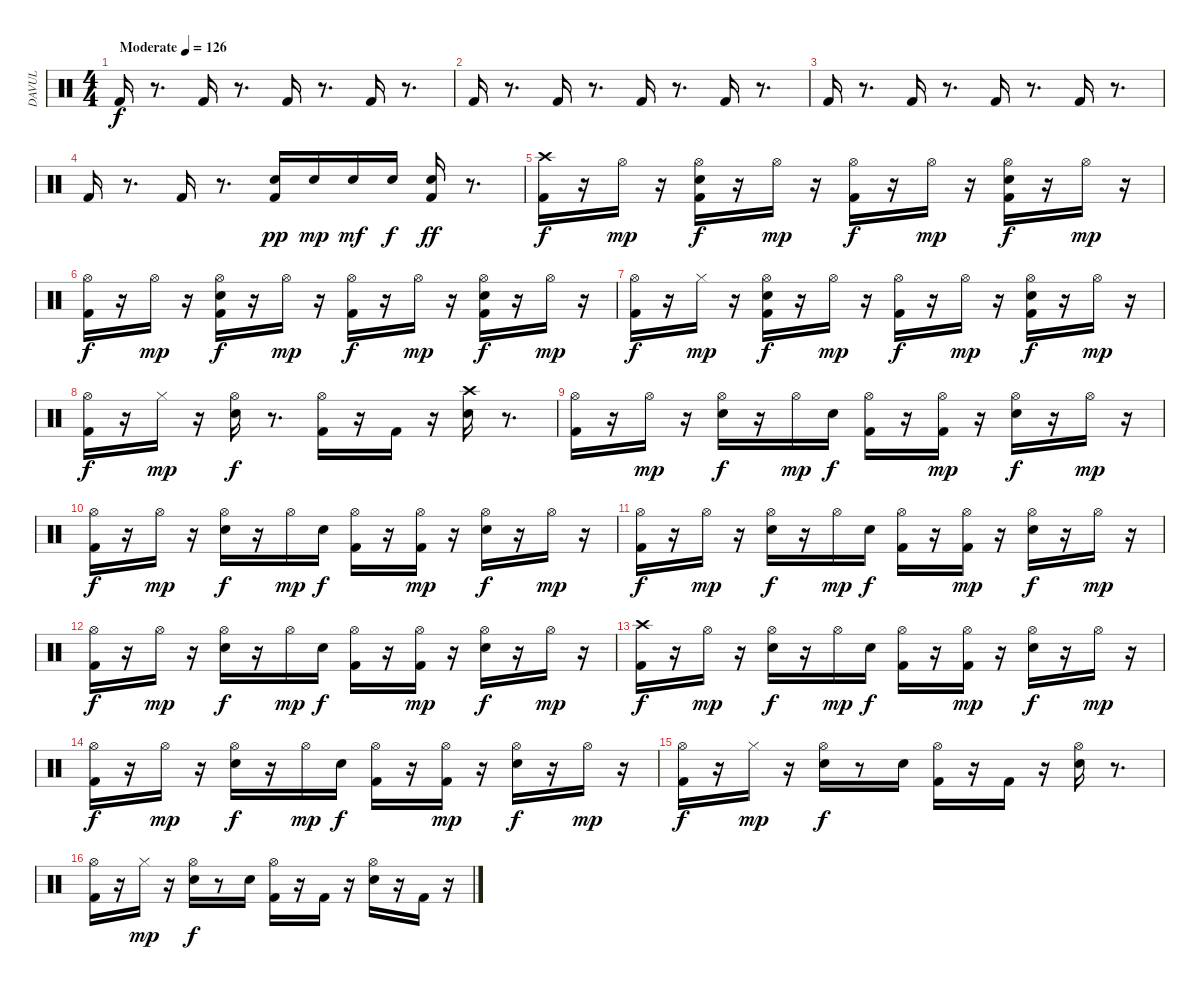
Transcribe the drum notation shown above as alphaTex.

\track ("DAVUL" "DAVUL") {instrument percussion}
\staff {score}
\articulation defaults
\ts (4 4)
\tempo (126 "Moderate")
\clef neutral
\ks c "Kick (hit) 2".16{dy f}
r.8{d} "Kick (hit) 2".16 r.8{d} "Kick (hit) 2".16 r.8{d} "Kick (hit) 2".16 r.8{d} |
"Kick (hit) 2".16 r.8{d} "Kick (hit) 2".16 r.8{d} "Kick (hit) 2".16 r.8{d} "Kick (hit) 2".16 r.8{d} |
"Kick (hit) 2".16 r.8{d} "Kick (hit) 2".16 r.8{d} "Kick (hit) 2".16 r.8{d} "Kick (hit) 2".16 r.8{d} |
"Kick (hit) 2".16 r.8{d} "Kick (hit) 2".16 r.8{d} ("Kick (hit) 2" "Electric Snare (hit)").16{dy pp} "Electric Snare (hit)".16{dy mp} "Electric Snare (hit)".16{dy mf} "Electric Snare (hit)".16{dy f} ("Kick (hit) 2" "Electric Snare (hit)").16{dy ff} r.8{d} |
("Kick (hit) 2" "Crash high (hit)").16{dy f} r.16 "Hi-Hat (open)".16{dy mp} r.16 ("Kick (hit) 2" "Hi-Hat (open)" "Electric Snare (hit)").16{dy f} r.16 "Hi-Hat (open)".16{dy mp} r.16 ("Kick (hit) 2" "Hi-Hat (open)").16{dy f} r.16 "Hi-Hat (open)".16{dy mp} r.16 ("Kick (hit) 2" "Hi-Hat (open)" "Electric Snare (hit)").16{dy f} r.16 "Hi-Hat (open)".16{dy mp} r.16 |
("Kick (hit) 2" "Hi-Hat (open)").16{dy f} r.16 "Hi-Hat (open)".16{dy mp} r.16 ("Kick (hit) 2" "Hi-Hat (open)" "Electric Snare (hit)").16{dy f} r.16 "Hi-Hat (open)".16{dy mp} r.16 ("Kick (hit) 2" "Hi-Hat (open)").16{dy f} r.16 "Hi-Hat (open)".16{dy mp} r.16 ("Kick (hit) 2" "Hi-Hat (open)" "Electric Snare (hit)").16{dy f} r.16 "Hi-Hat (open)".16{dy mp} r.16 |
("Kick (hit) 2" "Hi-Hat (open)").16{dy f} r.16 "Hi-Hat (closed)".16{dy mp} r.16 ("Kick (hit) 2" "Hi-Hat (open)" "Electric Snare (hit)").16{dy f} r.16 "Hi-Hat (open)".16{dy mp} r.16 ("Kick (hit) 2" "Hi-Hat (open)").16{dy f} r.16 "Hi-Hat (open)".16{dy mp} r.16 ("Kick (hit) 2" "Hi-Hat (open)" "Electric Snare (hit)").16{dy f} r.16 "Hi-Hat (open)".16{dy mp} r.16 |
("Kick (hit) 2" "Hi-Hat (open)").16{dy f} r.16 "Hi-Hat (closed)".16{dy mp} r.16 ("Hi-Hat (open)" "Electric Snare (hit)").16{dy f} r.8{d} ("Hi-Hat (open)" "Kick (hit) 2").16 r.16 "Kick (hit) 2".16 r.16 ("Electric Snare (hit)" "Crash high (hit)").16 r.8{d} |
("Kick (hit) 2" "Hi-Hat (open)").16 r.16 "Hi-Hat (open)".16{dy mp} r.16 ("Hi-Hat (open)" "Electric Snare (hit)").16{dy f} r.16 "Hi-Hat (open)".16{dy mp} "Electric Snare (hit)".16{dy f} ("Hi-Hat (open)" "Kick (hit) 2").16 r.16 ("Hi-Hat (open)" "Kick (hit) 2").16{dy mp} r.16 ("Hi-Hat (open)" "Electric Snare (hit)").16{dy f} r.16 "Hi-Hat (open)".16{dy mp} r.16 |
("Kick (hit) 2" "Hi-Hat (open)").16{dy f} r.16 "Hi-Hat (open)".16{dy mp} r.16 ("Hi-Hat (open)" "Electric Snare (hit)").16{dy f} r.16 "Hi-Hat (open)".16{dy mp} "Electric Snare (hit)".16{dy f} ("Kick (hit) 2" "Hi-Hat (open)").16 r.16 ("Hi-Hat (open)" "Kick (hit) 2").16{dy mp} r.16 ("Hi-Hat (open)" "Electric Snare (hit)").16{dy f} r.16 "Hi-Hat (open)".16{dy mp} r.16 |
("Kick (hit) 2" "Hi-Hat (open)").16{dy f} r.16 "Hi-Hat (open)".16{dy mp} r.16 ("Hi-Hat (open)" "Electric Snare (hit)").16{dy f} r.16 "Hi-Hat (open)".16{dy mp} "Electric Snare (hit)".16{dy f} ("Hi-Hat (open)" "Kick (hit) 2").16 r.16 ("Hi-Hat (open)" "Kick (hit) 2").16{dy mp} r.16 ("Hi-Hat (open)" "Electric Snare (hit)").16{dy f} r.16 "Hi-Hat (open)".16{dy mp} r.16 |
("Kick (hit) 2" "Hi-Hat (open)").16{dy f} r.16 "Hi-Hat (open)".16{dy mp} r.16 ("Hi-Hat (open)" "Electric Snare (hit)").16{dy f} r.16 "Hi-Hat (open)".16{dy mp} "Electric Snare (hit)".16{dy f} ("Kick (hit) 2" "Hi-Hat (open)").16 r.16 ("Hi-Hat (open)" "Kick (hit) 2").16{dy mp} r.16 ("Hi-Hat (open)" "Electric Snare (hit)").16{dy f} r.16 "Hi-Hat (open)".16{dy mp} r.16 |
("Kick (hit) 2" "Crash high (hit)").16{dy f} r.16 "Hi-Hat (open)".16{dy mp} r.16 ("Hi-Hat (open)" "Electric Snare (hit)").16{dy f} r.16 "Hi-Hat (open)".16{dy mp} "Electric Snare (hit)".16{dy f} ("Hi-Hat (open)" "Kick (hit) 2").16 r.16 ("Hi-Hat (open)" "Kick (hit) 2").16{dy mp} r.16 ("Hi-Hat (open)" "Electric Snare (hit)").16{dy f} r.16 "Hi-Hat (open)".16{dy mp} r.16 |
("Kick (hit) 2" "Hi-Hat (open)").16{dy f} r.16 "Hi-Hat (open)".16{dy mp} r.16 ("Hi-Hat (open)" "Electric Snare (hit)").16{dy f} r.16 "Hi-Hat (open)".16{dy mp} "Electric Snare (hit)".16{dy f} ("Kick (hit) 2" "Hi-Hat (open)").16 r.16 ("Hi-Hat (open)" "Kick (hit) 2").16{dy mp} r.16 ("Hi-Hat (open)" "Electric Snare (hit)").16{dy f} r.16 "Hi-Hat (open)".16{dy mp} r.16 |
("Kick (hit) 2" "Hi-Hat (open)").16{dy f} r.16 "Hi-Hat (closed)".16{dy mp} r.16 ("Hi-Hat (open)" "Electric Snare (hit)").16{dy f} r.8 "Electric Snare (hit)".16 ("Hi-Hat (open)" "Kick (hit) 2").16 r.16 "Kick (hit) 2".16 r.16 ("Hi-Hat (open)" "Electric Snare (hit)").16 r.8{d} |
("Kick (hit) 2" "Hi-Hat (open)").16 r.16 "Hi-Hat (closed)".16{dy mp} r.16 ("Hi-Hat (open)" "Electric Snare (hit)").16{dy f} r.8 "Electric Snare (hit)".16 ("Kick (hit) 2" "Hi-Hat (open)").16 r.16 "Kick (hit) 2".16 r.16 ("Hi-Hat (open)" "Electric Snare (hit)").16 r.16 "Kick (hit) 2".16 r.16
